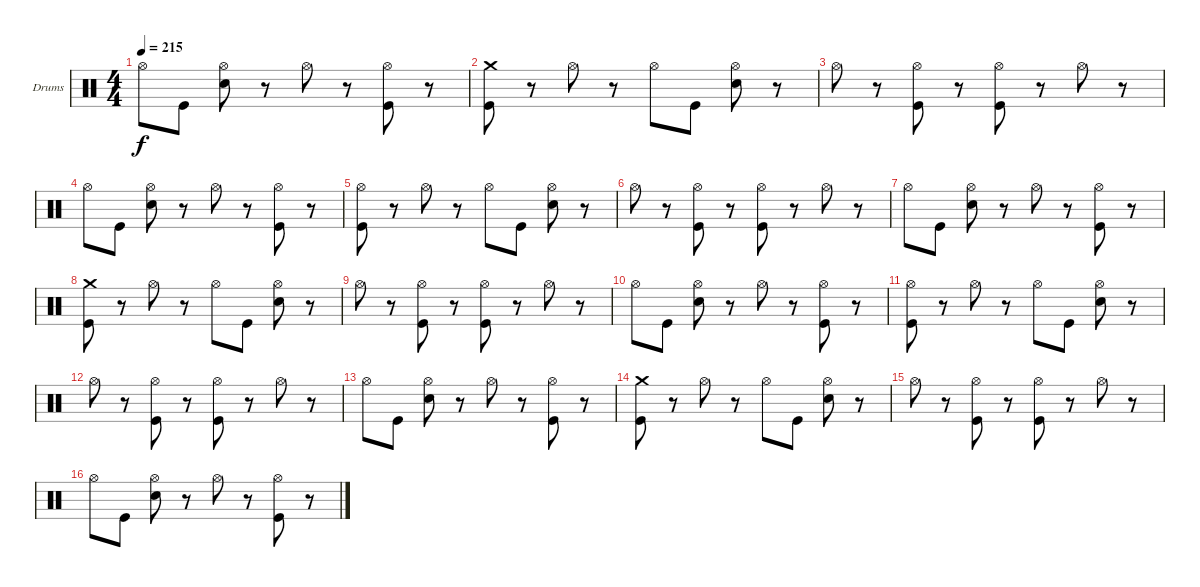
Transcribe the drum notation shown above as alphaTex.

\bracketExtendMode groupsimilarinstruments
\firstSystemTrackNameOrientation horizontal
\otherSystemsTrackNameOrientation horizontal
\track ("Drumkit (Christoph)" "Drums") {instrument percussion}
\staff {score}
\articulation defaults
\ts (4 4)
\tempo 215
\clef neutral
\ks c "Hi-Hat (open)".8{dy f} "Kick (hit)".8
("Hi-Hat (open)" "Snare (hit) 2").8 r.8 "Hi-Hat (open)".8 r.8 ("Hi-Hat (open)" "Kick (hit)").8 r.8 |
("Crash medium (hit)" "Kick (hit)").8 r.8 "Hi-Hat (open)".8 r.8 "Hi-Hat (open)".8 "Kick (hit)".8 ("Hi-Hat (open)" "Snare (hit) 2").8 r.8 |
"Hi-Hat (open)".8 r.8 ("Hi-Hat (open)" "Kick (hit)").8 r.8 ("Hi-Hat (open)" "Kick (hit)").8 r.8 "Hi-Hat (open)".8 r.8 |
"Hi-Hat (open)".8 "Kick (hit)".8 ("Hi-Hat (open)" "Snare (hit) 2").8 r.8 "Hi-Hat (open)".8 r.8 ("Hi-Hat (open)" "Kick (hit)").8 r.8 |
("Hi-Hat (open)" "Kick (hit)").8 r.8 "Hi-Hat (open)".8 r.8 "Hi-Hat (open)".8 "Kick (hit)".8 ("Hi-Hat (open)" "Snare (hit) 2").8 r.8 |
"Hi-Hat (open)".8 r.8 ("Hi-Hat (open)" "Kick (hit)").8 r.8 ("Hi-Hat (open)" "Kick (hit)").8 r.8 "Hi-Hat (open)".8 r.8 |
"Hi-Hat (open)".8 "Kick (hit)".8 ("Hi-Hat (open)" "Snare (hit) 2").8 r.8 "Hi-Hat (open)".8 r.8 ("Hi-Hat (open)" "Kick (hit)").8 r.8 |
("Crash medium (hit)" "Kick (hit)").8 r.8 "Hi-Hat (open)".8 r.8 "Hi-Hat (open)".8 "Kick (hit)".8 ("Hi-Hat (open)" "Snare (hit) 2").8 r.8 |
"Hi-Hat (open)".8 r.8 ("Hi-Hat (open)" "Kick (hit)").8 r.8 ("Hi-Hat (open)" "Kick (hit)").8 r.8 "Hi-Hat (open)".8 r.8 |
"Hi-Hat (open)".8 "Kick (hit)".8 ("Hi-Hat (open)" "Snare (hit) 2").8 r.8 "Hi-Hat (open)".8 r.8 ("Hi-Hat (open)" "Kick (hit)").8 r.8 |
("Hi-Hat (open)" "Kick (hit)").8 r.8 "Hi-Hat (open)".8 r.8 "Hi-Hat (open)".8 "Kick (hit)".8 ("Hi-Hat (open)" "Snare (hit) 2").8 r.8 |
"Hi-Hat (open)".8 r.8 ("Hi-Hat (open)" "Kick (hit)").8 r.8 ("Hi-Hat (open)" "Kick (hit)").8 r.8 "Hi-Hat (open)".8 r.8 |
"Hi-Hat (open)".8 "Kick (hit)".8 ("Hi-Hat (open)" "Snare (hit) 2").8 r.8 "Hi-Hat (open)".8 r.8 ("Hi-Hat (open)" "Kick (hit)").8 r.8 |
("Crash medium (hit)" "Kick (hit)").8 r.8 "Hi-Hat (open)".8 r.8 "Hi-Hat (open)".8 "Kick (hit)".8 ("Hi-Hat (open)" "Snare (hit) 2").8 r.8 |
"Hi-Hat (open)".8 r.8 ("Hi-Hat (open)" "Kick (hit)").8 r.8 ("Hi-Hat (open)" "Kick (hit)").8 r.8 "Hi-Hat (open)".8 r.8 |
"Hi-Hat (open)".8 "Kick (hit)".8 ("Hi-Hat (open)" "Snare (hit) 2").8 r.8 "Hi-Hat (open)".8 r.8 ("Hi-Hat (open)" "Kick (hit)").8 r.8
